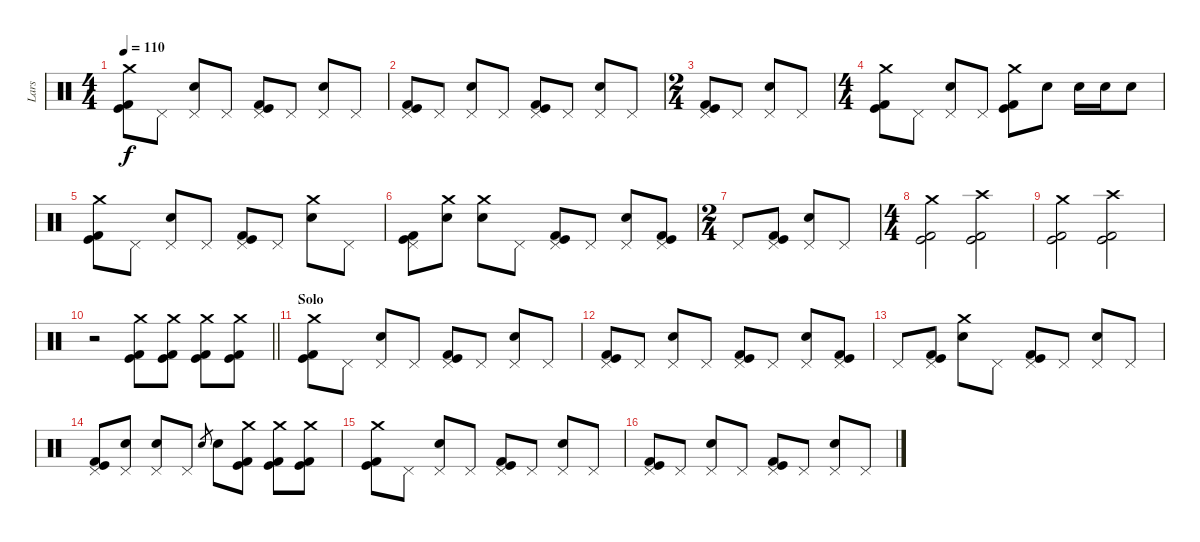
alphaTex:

\track ("Lars" "Lars") {instrument percussion}
\staff {score}
\articulation defaults
\ts (4 4)
\tempo 110
\clef neutral
\ks c
("Crash medium (hit)" "Kick (hit)" "Kick (hit) 2").8{dy f} "Pedal Hi-Hat (hit)".8 ("Pedal Hi-Hat (hit)" "Electric Snare (hit)").8 "Pedal Hi-Hat (hit)".8 ("Pedal Hi-Hat (hit)" "Kick (hit)" "Kick (hit) 2").8 "Pedal Hi-Hat (hit)".8 ("Pedal Hi-Hat (hit)" "Electric Snare (hit)").8 "Pedal Hi-Hat (hit)".8 |
("Pedal Hi-Hat (hit)" "Kick (hit)" "Kick (hit) 2").8 "Pedal Hi-Hat (hit)".8 ("Pedal Hi-Hat (hit)" "Electric Snare (hit)").8 "Pedal Hi-Hat (hit)".8 ("Pedal Hi-Hat (hit)" "Kick (hit)" "Kick (hit) 2").8 "Pedal Hi-Hat (hit)".8 ("Pedal Hi-Hat (hit)" "Electric Snare (hit)").8 "Pedal Hi-Hat (hit)".8 |
\ts (2 4)
("Pedal Hi-Hat (hit)" "Kick (hit)" "Kick (hit) 2").8 "Pedal Hi-Hat (hit)".8 ("Pedal Hi-Hat (hit)" "Electric Snare (hit)").8 "Pedal Hi-Hat (hit)".8 |
\ts (4 4)
("Crash medium (hit)" "Kick (hit)" "Kick (hit) 2").8 "Pedal Hi-Hat (hit)".8 ("Pedal Hi-Hat (hit)" "Electric Snare (hit)").8 "Pedal Hi-Hat (hit)".8 ("Crash medium (hit)" "Kick (hit)" "Kick (hit) 2").8 "Electric Snare (hit)".8 "Electric Snare (hit)".16 "Electric Snare (hit)".16 "Electric Snare (hit)".8 |
("Crash medium (hit)" "Kick (hit)" "Kick (hit) 2").8 "Pedal Hi-Hat (hit)".8 ("Pedal Hi-Hat (hit)" "Electric Snare (hit)").8 "Pedal Hi-Hat (hit)".8 ("Pedal Hi-Hat (hit)" "Kick (hit)" "Kick (hit) 2").8 "Pedal Hi-Hat (hit)".8 ("Crash medium (hit)" "Electric Snare (hit)").8 "Pedal Hi-Hat (hit)".8 |
("Pedal Hi-Hat (hit)" "Kick (hit)" "Kick (hit) 2").8 ("Crash medium (hit)" "Electric Snare (hit)").8 ("Crash medium (hit)" "Electric Snare (hit)").8 "Pedal Hi-Hat (hit)".8 ("Pedal Hi-Hat (hit)" "Kick (hit)" "Kick (hit) 2").8 "Pedal Hi-Hat (hit)".8 ("Pedal Hi-Hat (hit)" "Electric Snare (hit)").8 ("Pedal Hi-Hat (hit)" "Kick (hit)" "Kick (hit) 2").8 |
\ts (2 4)
"Pedal Hi-Hat (hit)".8 ("Pedal Hi-Hat (hit)" "Kick (hit)" "Kick (hit) 2").8 ("Pedal Hi-Hat (hit)" "Electric Snare (hit)").8 "Pedal Hi-Hat (hit)".8 |
\ts (4 4)
("Crash medium (hit)" "Kick (hit)" "Kick (hit) 2").2 ("Crash high (hit)" "Kick (hit)" "Kick (hit) 2").2 |
("Crash medium (hit)" "Kick (hit)" "Kick (hit) 2").2 ("Crash high (hit)" "Kick (hit)" "Kick (hit) 2").2 |
\barLineRight lightlight
r.2 ("Crash medium (hit)" "Kick (hit)" "Kick (hit) 2").8 ("Crash medium (hit)" "Kick (hit)" "Kick (hit) 2").8 ("Crash medium (hit)" "Kick (hit)" "Kick (hit) 2").8 ("Crash medium (hit)" "Kick (hit)" "Kick (hit) 2").8 |
\section ("" "Solo")
("Crash medium (hit)" "Kick (hit)" "Kick (hit) 2").8 "Pedal Hi-Hat (hit)".8 ("Pedal Hi-Hat (hit)" "Electric Snare (hit)").8 "Pedal Hi-Hat (hit)".8 ("Pedal Hi-Hat (hit)" "Kick (hit)" "Kick (hit) 2").8 "Pedal Hi-Hat (hit)".8 ("Pedal Hi-Hat (hit)" "Electric Snare (hit)").8 "Pedal Hi-Hat (hit)".8 |
("Pedal Hi-Hat (hit)" "Kick (hit)" "Kick (hit) 2").8 "Pedal Hi-Hat (hit)".8 ("Pedal Hi-Hat (hit)" "Electric Snare (hit)").8 "Pedal Hi-Hat (hit)".8 ("Pedal Hi-Hat (hit)" "Kick (hit)" "Kick (hit) 2").8 "Pedal Hi-Hat (hit)".8 ("Pedal Hi-Hat (hit)" "Electric Snare (hit)").8 ("Pedal Hi-Hat (hit)" "Kick (hit)" "Kick (hit) 2").8 |
"Pedal Hi-Hat (hit)".8 ("Pedal Hi-Hat (hit)" "Kick (hit)" "Kick (hit) 2").8 ("Crash medium (hit)" "Electric Snare (hit)").8 "Pedal Hi-Hat (hit)".8 ("Pedal Hi-Hat (hit)" "Kick (hit)" "Kick (hit) 2").8 "Pedal Hi-Hat (hit)".8 ("Pedal Hi-Hat (hit)" "Electric Snare (hit)").8 "Pedal Hi-Hat (hit)".8 |
("Pedal Hi-Hat (hit)" "Kick (hit)" "Kick (hit) 2").8 ("Pedal Hi-Hat (hit)" "Electric Snare (hit)").8 ("Pedal Hi-Hat (hit)" "Electric Snare (hit)").8 "Pedal Hi-Hat (hit)".8 "Electric Snare (hit)".8{gr} "Electric Snare (hit)".8 ("Crash medium (hit)" "Kick (hit)" "Kick (hit) 2").8 ("Crash medium (hit)" "Kick (hit)" "Kick (hit) 2").8 ("Crash medium (hit)" "Kick (hit)" "Kick (hit) 2").8 |
("Crash medium (hit)" "Kick (hit)" "Kick (hit) 2").8 "Pedal Hi-Hat (hit)".8 ("Pedal Hi-Hat (hit)" "Electric Snare (hit)").8 "Pedal Hi-Hat (hit)".8 ("Pedal Hi-Hat (hit)" "Kick (hit)" "Kick (hit) 2").8 "Pedal Hi-Hat (hit)".8 ("Pedal Hi-Hat (hit)" "Electric Snare (hit)").8 "Pedal Hi-Hat (hit)".8 |
("Pedal Hi-Hat (hit)" "Kick (hit)" "Kick (hit) 2").8 "Pedal Hi-Hat (hit)".8 ("Pedal Hi-Hat (hit)" "Electric Snare (hit)").8 "Pedal Hi-Hat (hit)".8 ("Pedal Hi-Hat (hit)" "Kick (hit)" "Kick (hit) 2").8 "Pedal Hi-Hat (hit)".8 ("Pedal Hi-Hat (hit)" "Electric Snare (hit)").8 "Pedal Hi-Hat (hit)".8
